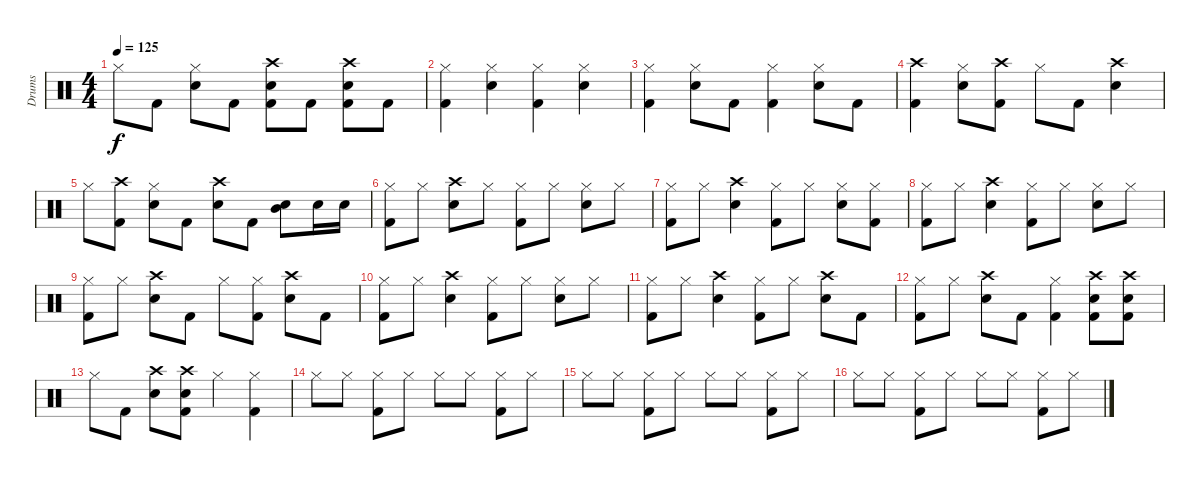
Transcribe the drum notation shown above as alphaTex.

\track ("Drums" "Drums") {instrument percussion}
\staff {score}
\articulation defaults
\ts (4 4)
\tempo 125
\clef neutral
\ks c "Hi-Hat (closed)".8{dy f} "Kick (hit) 2".8
("Hi-Hat (closed)" "Electric Snare (hit)").8 "Kick (hit) 2".8 ("Crash high (hit)" "Electric Snare (hit)" "Kick (hit) 2").8 "Kick (hit) 2".8 ("Crash high (hit)" "Electric Snare (hit)" "Kick (hit) 2").8 "Kick (hit) 2".8 |
("Hi-Hat (closed)" "Kick (hit) 2").4 ("Hi-Hat (closed)" "Electric Snare (hit)").4 ("Hi-Hat (closed)" "Kick (hit) 2").4 ("Hi-Hat (closed)" "Electric Snare (hit)").4 |
("Hi-Hat (closed)" "Kick (hit) 2").4 ("Hi-Hat (closed)" "Electric Snare (hit)").8 "Kick (hit) 2".8 ("Hi-Hat (closed)" "Kick (hit) 2").4 ("Hi-Hat (closed)" "Electric Snare (hit)").8 "Kick (hit) 2".8 |
("Crash high (hit)" "Kick (hit) 2").4 ("Hi-Hat (closed)" "Electric Snare (hit)").8 ("Crash high (hit)" "Kick (hit) 2").8 "Hi-Hat (closed)".8 "Kick (hit) 2".8 ("Crash high (hit)" "Electric Snare (hit)").4 |
"Hi-Hat (closed)".8 ("Crash high (hit)" "Kick (hit) 2").8 ("Hi-Hat (closed)" "Electric Snare (hit)").8 "Kick (hit) 2".8 ("Crash high (hit)" "Electric Snare (hit)").8 "Kick (hit) 2".8 ("Mid Tom (hit)" "Electric Snare (hit)").8 "Electric Snare (hit)".16 "Electric Snare (hit)".16 |
("Hi-Hat (closed)" "Kick (hit) 2").8 "Hi-Hat (closed)".8 ("Crash high (hit)" "Electric Snare (hit)").8 "Hi-Hat (closed)".8 ("Hi-Hat (closed)" "Kick (hit) 2").8 "Hi-Hat (closed)".8 ("Hi-Hat (closed)" "Electric Snare (hit)").8 "Hi-Hat (closed)".8 |
("Hi-Hat (closed)" "Kick (hit) 2").8 "Hi-Hat (closed)".8 ("Crash high (hit)" "Electric Snare (hit)").4 ("Hi-Hat (closed)" "Kick (hit) 2").8 "Hi-Hat (closed)".8 ("Hi-Hat (closed)" "Electric Snare (hit)").8 ("Hi-Hat (closed)" "Kick (hit) 2").8 |
("Hi-Hat (closed)" "Kick (hit) 2").8 "Hi-Hat (closed)".8 ("Crash high (hit)" "Electric Snare (hit)").4 ("Hi-Hat (closed)" "Kick (hit) 2").8 "Hi-Hat (closed)".8 ("Hi-Hat (closed)" "Electric Snare (hit)").8 "Hi-Hat (closed)".8 |
("Hi-Hat (closed)" "Kick (hit) 2").8 "Hi-Hat (closed)".8 ("Crash high (hit)" "Electric Snare (hit)").8 "Kick (hit) 2".8 "Hi-Hat (closed)".8 ("Hi-Hat (closed)" "Kick (hit) 2").8 ("Crash high (hit)" "Electric Snare (hit)").8 "Kick (hit) 2".8 |
("Hi-Hat (closed)" "Kick (hit) 2").8 "Hi-Hat (closed)".8 ("Crash high (hit)" "Electric Snare (hit)").4 ("Hi-Hat (closed)" "Kick (hit) 2").8 "Hi-Hat (closed)".8 ("Hi-Hat (closed)" "Electric Snare (hit)").8 "Hi-Hat (closed)".8 |
("Hi-Hat (closed)" "Kick (hit) 2").8 "Hi-Hat (closed)".8 ("Crash high (hit)" "Electric Snare (hit)").4 ("Hi-Hat (closed)" "Kick (hit) 2").8 "Hi-Hat (closed)".8 ("Crash high (hit)" "Electric Snare (hit)").8 "Kick (hit) 2".8 |
("Hi-Hat (closed)" "Kick (hit) 2").8 "Hi-Hat (closed)".8 ("Crash high (hit)" "Electric Snare (hit)").8 "Kick (hit) 2".8 ("Hi-Hat (closed)" "Kick (hit) 2").4 ("Crash high (hit)" "Electric Snare (hit)" "Kick (hit) 2").8 ("Crash high (hit)" "Electric Snare (hit)" "Kick (hit) 2").8 |
"Hi-Hat (closed)".8 "Kick (hit) 2".8 ("Crash high (hit)" "Electric Snare (hit)").8 ("Crash high (hit)" "Electric Snare (hit)" "Kick (hit) 2").8 "Hi-Hat (closed)".4 ("Hi-Hat (closed)" "Kick (hit) 2").4 |
"Hi-Hat (closed)".8 "Hi-Hat (closed)".8 ("Hi-Hat (closed)" "Kick (hit) 2").8 "Hi-Hat (closed)".8 "Hi-Hat (closed)".8 "Hi-Hat (closed)".8 ("Hi-Hat (closed)" "Kick (hit) 2").8 "Hi-Hat (closed)".8 |
"Hi-Hat (closed)".8 "Hi-Hat (closed)".8 ("Hi-Hat (closed)" "Kick (hit) 2").8 "Hi-Hat (closed)".8 "Hi-Hat (closed)".8 "Hi-Hat (closed)".8 ("Hi-Hat (closed)" "Kick (hit) 2").8 "Hi-Hat (closed)".8 |
"Hi-Hat (closed)".8 "Hi-Hat (closed)".8 ("Hi-Hat (closed)" "Kick (hit) 2").8 "Hi-Hat (closed)".8 "Hi-Hat (closed)".8 "Hi-Hat (closed)".8 ("Hi-Hat (closed)" "Kick (hit) 2").8 "Hi-Hat (closed)".8
